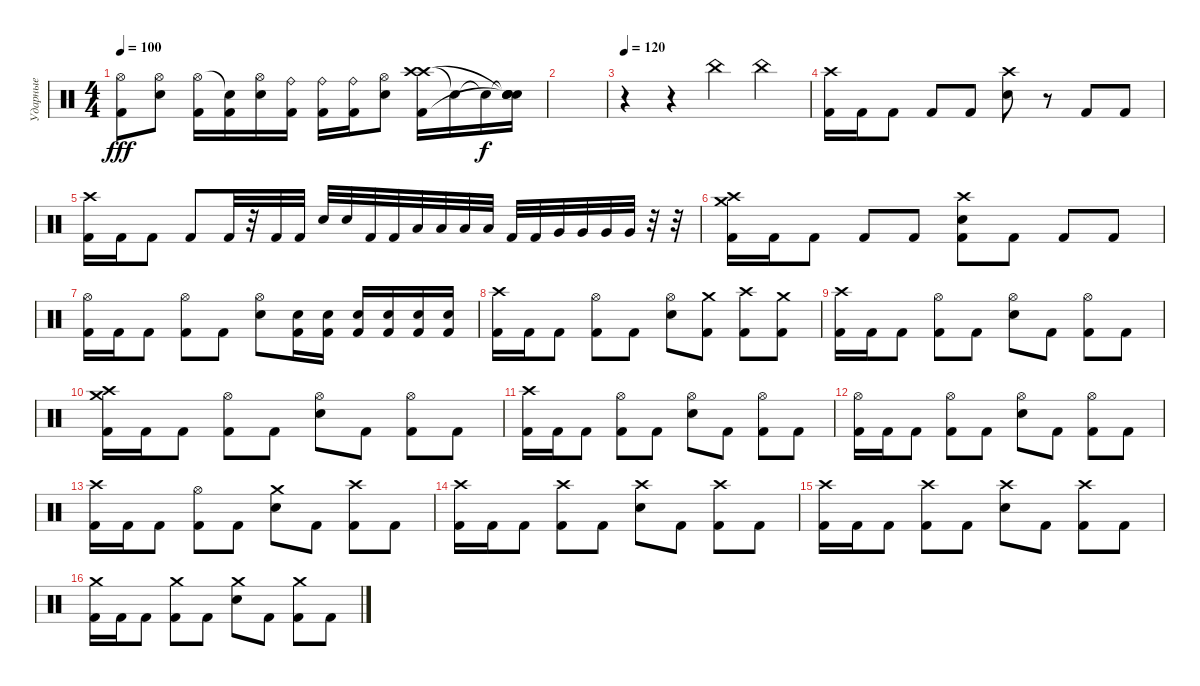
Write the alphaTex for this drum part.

\track ("Ударные" "Ударные") {instrument percussion}
\staff {score}
\articulation defaults
\ts (4 4)
\tempo 100
\clef neutral
\ks c
("Hi-Hat (open)" "Kick (hit) 2").8{dy fff} ("Hi-Hat (open)" "Snare (hit) 2").8 ("Hi-Hat (open)" "Kick (hit) 2").16 ("Snare (hit)"{t} "Kick (hit) 2").16 ("Hi-Hat (open)" "Snare (hit) 2").16 ("Ride (bell)" "Kick (hit) 2").16 ("Ride (bell)" "Kick (hit) 2").16 ("Ride (bell)" "Kick (hit) 2").16 ("Hi-Hat (open)" "Snare (hit) 2").8 ("Crash high (hit)" "Crash high (hit)" "Kick (hit) 2").16 "Snare (hit)"{t}.16 "Snare (hit)"{t}.16{dy f} ("Snare (hit)"{t} "Snare (hit)"{t} "Snare (hit)"{t} "Snare (hit)").16 |
|
\tempo 120
r.4 r.4 "China (hit)".4 "China (hit)".4 |
("Crash high (hit)" "Kick (hit) 2").16 "Kick (hit) 2".16 "Kick (hit) 2".8 "Kick (hit) 2".8 "Kick (hit) 2".8 ("Crash high (hit)" "Snare (hit) 2").8 r.8 "Kick (hit) 2".8 "Kick (hit) 2".8 |
("Crash high (hit)" "Kick (hit) 2").16 "Kick (hit) 2".16 "Kick (hit) 2".8 "Kick (hit) 2".8 "Kick (hit) 2".32 r.32 "Kick (hit) 2".32 "Kick (hit) 2".32 "Snare (hit) 2".32 "Snare (hit) 2".32 "Kick (hit) 2".32 "Kick (hit) 2".32 "Low Floor Tom (hit)".32 "Low Floor Tom (hit)".32 "Low Floor Tom (hit)".32 "Low Floor Tom (hit)".32 "Kick (hit) 2".32 "Kick (hit) 2".32 "Very Low Tom (hit)".32 "Very Low Tom (hit)".32 "Very Low Tom (hit)".32 "Very Low Tom (hit)".32 r.32 r.32 |
("Crash medium (hit)" "Crash high (hit)" "Kick (hit) 2").16 "Kick (hit) 2".16 "Kick (hit) 2".8 "Kick (hit) 2".8 "Kick (hit) 2".8 ("Crash high (hit)" "Snare (hit) 2" "Kick (hit) 2").8 "Kick (hit) 2".8 "Kick (hit) 2".8 "Kick (hit) 2".8 |
("Hi-Hat (open)" "Kick (hit) 2").16 "Kick (hit) 2".16 "Kick (hit) 2".8 ("Hi-Hat (open)" "Kick (hit) 2").8 "Kick (hit) 2".8 ("Hi-Hat (open)" "Snare (hit) 2").8 ("Snare (hit) 2" "Kick (hit) 2").16 ("Snare (hit) 2" "Kick (hit) 2").16 ("Snare (hit) 2" "Kick (hit) 2").16 ("Snare (hit) 2" "Kick (hit) 2").16 ("Snare (hit) 2" "Kick (hit) 2").16 ("Snare (hit) 2" "Kick (hit) 2").16 |
("Crash high (hit)" "Kick (hit) 2").16 "Kick (hit) 2".16 "Kick (hit) 2".8 ("Hi-Hat (open)" "Kick (hit) 2").8 "Kick (hit) 2".8 ("Hi-Hat (open)" "Snare (hit) 2").8 ("Crash medium (hit)" "Kick (hit) 2").8 ("Crash high (hit)" "Kick (hit) 2").8 ("Crash medium (hit)" "Kick (hit) 2").8 |
("Crash high (hit)" "Kick (hit) 2").16 "Kick (hit) 2".16 "Kick (hit) 2".8 ("Hi-Hat (open)" "Kick (hit) 2").8 "Kick (hit) 2".8 ("Hi-Hat (open)" "Snare (hit) 2").8 "Kick (hit) 2".8 ("Hi-Hat (open)" "Kick (hit) 2").8 "Kick (hit) 2".8 |
("Crash medium (hit)" "Crash high (hit)" "Kick (hit) 2").16 "Kick (hit) 2".16 "Kick (hit) 2".8 ("Hi-Hat (open)" "Kick (hit) 2").8 "Kick (hit) 2".8 ("Hi-Hat (open)" "Snare (hit) 2").8 "Kick (hit) 2".8 ("Hi-Hat (open)" "Kick (hit) 2").8 "Kick (hit) 2".8 |
("Crash high (hit)" "Kick (hit) 2").16 "Kick (hit) 2".16 "Kick (hit) 2".8 ("Hi-Hat (open)" "Kick (hit) 2").8 "Kick (hit) 2".8 ("Hi-Hat (open)" "Snare (hit) 2").8 "Kick (hit) 2".8 ("Hi-Hat (open)" "Kick (hit) 2").8 "Kick (hit) 2".8 |
("Hi-Hat (open)" "Kick (hit) 2").16 "Kick (hit) 2".16 "Kick (hit) 2".8 ("Hi-Hat (open)" "Kick (hit) 2").8 "Kick (hit) 2".8 ("Hi-Hat (open)" "Snare (hit) 2").8 "Kick (hit) 2".8 ("Hi-Hat (open)" "Kick (hit) 2").8 "Kick (hit) 2".8 |
("Crash high (hit)" "Kick (hit) 2").16 "Kick (hit) 2".16 "Kick (hit) 2".8 ("Hi-Hat (open)" "Kick (hit) 2").8 "Kick (hit) 2".8 ("Crash medium (hit)" "Snare (hit) 2").8 "Kick (hit) 2".8 ("Crash high (hit)" "Kick (hit) 2").8 "Kick (hit) 2".8 |
("Crash high (hit)" "Kick (hit) 2").16 "Kick (hit) 2".16 "Kick (hit) 2".8 ("Crash high (hit)" "Kick (hit) 2").8 "Kick (hit) 2".8 ("Crash high (hit)" "Snare (hit) 2").8 "Kick (hit) 2".8 ("Crash high (hit)" "Kick (hit) 2").8 "Kick (hit) 2".8 |
("Crash high (hit)" "Kick (hit) 2").16 "Kick (hit) 2".16 "Kick (hit) 2".8 ("Crash high (hit)" "Kick (hit) 2").8 "Kick (hit) 2".8 ("Crash high (hit)" "Snare (hit) 2").8 "Kick (hit) 2".8 ("Crash high (hit)" "Kick (hit) 2").8 "Kick (hit) 2".8 |
("Crash medium (hit)" "Kick (hit) 2").16 "Kick (hit) 2".16 "Kick (hit) 2".8 ("Crash medium (hit)" "Kick (hit) 2").8 "Kick (hit) 2".8 ("Crash medium (hit)" "Snare (hit) 2").8 "Kick (hit) 2".8 ("Crash medium (hit)" "Kick (hit) 2").8 "Kick (hit) 2".8
